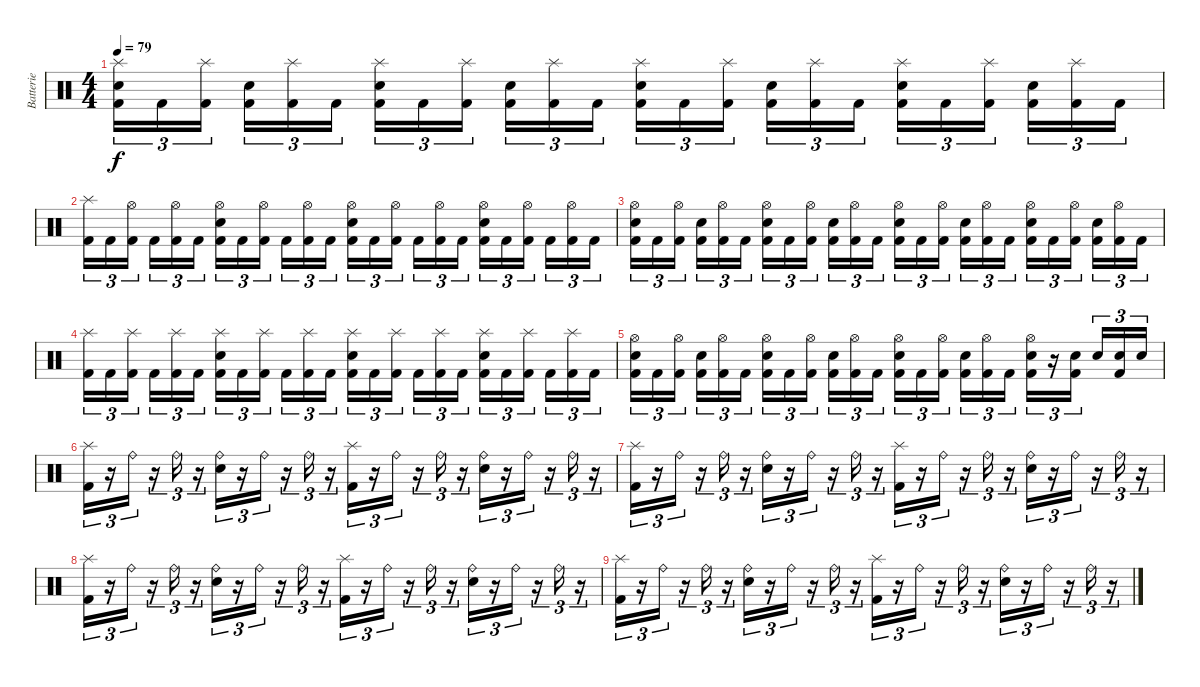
\track ("Batterie" "Batterie") {instrument percussion}
\staff {score}
\articulation defaults
\ts (4 4)
\tempo 79
\clef neutral
\ks c
("Splash (hit)" "Snare (hit) 2" "Kick (hit) 2").16{tu (3 2) dy f} "Kick (hit) 2".16{tu (3 2)} ("Splash (hit)" "Kick (hit) 2").16{tu (3 2)} ("Snare (hit) 2" "Kick (hit) 2").16{tu (3 2)} ("Splash (hit)" "Kick (hit) 2").16{tu (3 2)} "Kick (hit) 2".16{tu (3 2)} ("Splash (hit)" "Snare (hit) 2" "Kick (hit) 2").16{tu (3 2)} "Kick (hit) 2".16{tu (3 2)} ("Splash (hit)" "Kick (hit) 2").16{tu (3 2)} ("Snare (hit) 2" "Kick (hit) 2").16{tu (3 2)} ("Splash (hit)" "Kick (hit) 2").16{tu (3 2)} "Kick (hit) 2".16{tu (3 2)} ("Splash (hit)" "Snare (hit) 2" "Kick (hit) 2").16{tu (3 2)} "Kick (hit) 2".16{tu (3 2)} ("Splash (hit)" "Kick (hit) 2").16{tu (3 2)} ("Snare (hit) 2" "Kick (hit) 2").16{tu (3 2)} ("Splash (hit)" "Kick (hit) 2").16{tu (3 2)} "Kick (hit) 2".16{tu (3 2)} ("Splash (hit)" "Snare (hit) 2" "Kick (hit) 2").16{tu (3 2)} "Kick (hit) 2".16{tu (3 2)} ("Splash (hit)" "Kick (hit) 2").16{tu (3 2)} ("Snare (hit) 2" "Kick (hit) 2").16{tu (3 2)} ("Splash (hit)" "Kick (hit) 2").16{tu (3 2)} "Kick (hit) 2".16{tu (3 2)} |
("Splash (hit)" "Kick (hit) 2").16{tu (3 2)} "Kick (hit) 2".16{tu (3 2)} ("Hi-Hat (open)" "Kick (hit) 2").16{tu (3 2)} "Kick (hit) 2".16{tu (3 2)} ("Hi-Hat (open)" "Kick (hit) 2").16{tu (3 2)} "Kick (hit) 2".16{tu (3 2)} ("Hi-Hat (open)" "Snare (hit) 2" "Kick (hit) 2").16{tu (3 2)} "Kick (hit) 2".16{tu (3 2)} ("Hi-Hat (open)" "Kick (hit) 2").16{tu (3 2)} "Kick (hit) 2".16{tu (3 2)} ("Hi-Hat (open)" "Kick (hit) 2").16{tu (3 2)} "Kick (hit) 2".16{tu (3 2)} ("Hi-Hat (open)" "Snare (hit) 2" "Kick (hit) 2").16{tu (3 2)} "Kick (hit) 2".16{tu (3 2)} ("Hi-Hat (open)" "Kick (hit) 2").16{tu (3 2)} "Kick (hit) 2".16{tu (3 2)} ("Hi-Hat (open)" "Kick (hit) 2").16{tu (3 2)} "Kick (hit) 2".16{tu (3 2)} ("Hi-Hat (open)" "Snare (hit) 2" "Kick (hit) 2").16{tu (3 2)} "Kick (hit) 2".16{tu (3 2)} ("Hi-Hat (open)" "Kick (hit) 2").16{tu (3 2)} "Kick (hit) 2".16{tu (3 2)} ("Hi-Hat (open)" "Kick (hit) 2").16{tu (3 2)} "Kick (hit) 2".16{tu (3 2)} |
("Hi-Hat (open)" "Snare (hit) 2" "Kick (hit) 2").16{tu (3 2)} "Kick (hit) 2".16{tu (3 2)} ("Hi-Hat (open)" "Kick (hit) 2").16{tu (3 2)} ("Snare (hit) 2" "Kick (hit) 2").16{tu (3 2)} ("Hi-Hat (open)" "Kick (hit) 2").16{tu (3 2)} "Kick (hit) 2".16{tu (3 2)} ("Hi-Hat (open)" "Snare (hit) 2" "Kick (hit) 2").16{tu (3 2)} "Kick (hit) 2".16{tu (3 2)} ("Hi-Hat (open)" "Kick (hit) 2").16{tu (3 2)} ("Snare (hit) 2" "Kick (hit) 2").16{tu (3 2)} ("Hi-Hat (open)" "Kick (hit) 2").16{tu (3 2)} "Kick (hit) 2".16{tu (3 2)} ("Hi-Hat (open)" "Snare (hit) 2" "Kick (hit) 2").16{tu (3 2)} "Kick (hit) 2".16{tu (3 2)} ("Hi-Hat (open)" "Kick (hit) 2").16{tu (3 2)} ("Snare (hit) 2" "Kick (hit) 2").16{tu (3 2)} ("Hi-Hat (open)" "Kick (hit) 2").16{tu (3 2)} "Kick (hit) 2".16{tu (3 2)} ("Hi-Hat (open)" "Snare (hit) 2" "Kick (hit) 2").16{tu (3 2)} "Kick (hit) 2".16{tu (3 2)} ("Hi-Hat (open)" "Kick (hit) 2").16{tu (3 2)} ("Snare (hit) 2" "Kick (hit) 2").16{tu (3 2)} ("Hi-Hat (open)" "Kick (hit) 2").16{tu (3 2)} "Kick (hit) 2".16{tu (3 2)} |
("Splash (hit)" "Kick (hit) 2").16{tu (3 2)} "Kick (hit) 2".16{tu (3 2)} ("Splash (hit)" "Kick (hit) 2").16{tu (3 2)} "Kick (hit) 2".16{tu (3 2)} ("Splash (hit)" "Kick (hit) 2").16{tu (3 2)} "Kick (hit) 2".16{tu (3 2)} ("Splash (hit)" "Snare (hit) 2" "Kick (hit) 2").16{tu (3 2)} "Kick (hit) 2".16{tu (3 2)} ("Splash (hit)" "Kick (hit) 2").16{tu (3 2)} "Kick (hit) 2".16{tu (3 2)} ("Splash (hit)" "Kick (hit) 2").16{tu (3 2)} "Kick (hit) 2".16{tu (3 2)} ("Splash (hit)" "Snare (hit) 2" "Kick (hit) 2").16{tu (3 2)} "Kick (hit) 2".16{tu (3 2)} ("Splash (hit)" "Kick (hit) 2").16{tu (3 2)} "Kick (hit) 2".16{tu (3 2)} ("Splash (hit)" "Kick (hit) 2").16{tu (3 2)} "Kick (hit) 2".16{tu (3 2)} ("Splash (hit)" "Snare (hit) 2" "Kick (hit) 2").16{tu (3 2)} "Kick (hit) 2".16{tu (3 2)} ("Splash (hit)" "Kick (hit) 2").16{tu (3 2)} "Kick (hit) 2".16{tu (3 2)} ("Splash (hit)" "Kick (hit) 2").16{tu (3 2)} "Kick (hit) 2".16{tu (3 2)} |
("Hi-Hat (open)" "Snare (hit) 2" "Kick (hit) 2").16{tu (3 2)} "Kick (hit) 2".16{tu (3 2)} ("Hi-Hat (open)" "Kick (hit) 2").16{tu (3 2)} ("Snare (hit) 2" "Kick (hit) 2").16{tu (3 2)} ("Hi-Hat (open)" "Kick (hit) 2").16{tu (3 2)} "Kick (hit) 2".16{tu (3 2)} ("Hi-Hat (open)" "Snare (hit) 2" "Kick (hit) 2").16{tu (3 2)} "Kick (hit) 2".16{tu (3 2)} ("Hi-Hat (open)" "Kick (hit) 2").16{tu (3 2)} ("Snare (hit) 2" "Kick (hit) 2").16{tu (3 2)} ("Hi-Hat (open)" "Kick (hit) 2").16{tu (3 2)} "Kick (hit) 2".16{tu (3 2)} ("Hi-Hat (open)" "Snare (hit) 2" "Kick (hit) 2").16{tu (3 2)} "Kick (hit) 2".16{tu (3 2)} ("Hi-Hat (open)" "Kick (hit) 2").16{tu (3 2)} ("Snare (hit) 2" "Kick (hit) 2").16{tu (3 2)} ("Hi-Hat (open)" "Kick (hit) 2").16{tu (3 2)} "Kick (hit) 2".16{tu (3 2)} ("Hi-Hat (open)" "Snare (hit) 2" "Kick (hit) 2").16{tu (3 2)} r.16{tu (3 2)} ("Snare (hit) 2" "Kick (hit) 2").16{tu (3 2)} "Snare (hit) 2".16{tu (3 2)} ("Snare (hit) 2" "Kick (hit) 2").16{tu (3 2)} "Snare (hit) 2".16{tu (3 2)} |
("Splash (hit)" "Kick (hit) 2").16{tu (3 2)} r.16{tu (3 2)} "Ride (bell)".16{tu (3 2)} r.16{tu (3 2)} "Ride (bell)".16{tu (3 2)} r.16{tu (3 2)} ("Ride (bell)" "Snare (hit) 2").16{tu (3 2)} r.16{tu (3 2)} "Ride (bell)".16{tu (3 2)} r.16{tu (3 2)} "Ride (bell)".16{tu (3 2)} r.16{tu (3 2)} ("Splash (hit)" "Kick (hit) 2").16{tu (3 2)} r.16{tu (3 2)} "Ride (bell)".16{tu (3 2)} r.16{tu (3 2)} "Ride (bell)".16{tu (3 2)} r.16{tu (3 2)} ("Ride (bell)" "Snare (hit) 2").16{tu (3 2)} r.16{tu (3 2)} "Ride (bell)".16{tu (3 2)} r.16{tu (3 2)} "Ride (bell)".16{tu (3 2)} r.16{tu (3 2)} |
("Splash (hit)" "Kick (hit) 2").16{tu (3 2)} r.16{tu (3 2)} "Ride (bell)".16{tu (3 2)} r.16{tu (3 2)} "Ride (bell)".16{tu (3 2)} r.16{tu (3 2)} ("Ride (bell)" "Snare (hit) 2").16{tu (3 2)} r.16{tu (3 2)} "Ride (bell)".16{tu (3 2)} r.16{tu (3 2)} "Ride (bell)".16{tu (3 2)} r.16{tu (3 2)} ("Splash (hit)" "Kick (hit) 2").16{tu (3 2)} r.16{tu (3 2)} "Ride (bell)".16{tu (3 2)} r.16{tu (3 2)} "Ride (bell)".16{tu (3 2)} r.16{tu (3 2)} ("Ride (bell)" "Snare (hit) 2").16{tu (3 2)} r.16{tu (3 2)} "Ride (bell)".16{tu (3 2)} r.16{tu (3 2)} "Ride (bell)".16{tu (3 2)} r.16{tu (3 2)} |
("Splash (hit)" "Kick (hit) 2").16{tu (3 2)} r.16{tu (3 2)} "Ride (bell)".16{tu (3 2)} r.16{tu (3 2)} "Ride (bell)".16{tu (3 2)} r.16{tu (3 2)} ("Ride (bell)" "Snare (hit) 2").16{tu (3 2)} r.16{tu (3 2)} "Ride (bell)".16{tu (3 2)} r.16{tu (3 2)} "Ride (bell)".16{tu (3 2)} r.16{tu (3 2)} ("Splash (hit)" "Kick (hit) 2").16{tu (3 2)} r.16{tu (3 2)} "Ride (bell)".16{tu (3 2)} r.16{tu (3 2)} "Ride (bell)".16{tu (3 2)} r.16{tu (3 2)} ("Ride (bell)" "Snare (hit) 2").16{tu (3 2)} r.16{tu (3 2)} "Ride (bell)".16{tu (3 2)} r.16{tu (3 2)} "Ride (bell)".16{tu (3 2)} r.16{tu (3 2)} |
("Splash (hit)" "Kick (hit) 2").16{tu (3 2)} r.16{tu (3 2)} "Ride (bell)".16{tu (3 2)} r.16{tu (3 2)} "Ride (bell)".16{tu (3 2)} r.16{tu (3 2)} ("Ride (bell)" "Snare (hit) 2").16{tu (3 2)} r.16{tu (3 2)} "Ride (bell)".16{tu (3 2)} r.16{tu (3 2)} "Ride (bell)".16{tu (3 2)} r.16{tu (3 2)} ("Splash (hit)" "Kick (hit) 2").16{tu (3 2)} r.16{tu (3 2)} "Ride (bell)".16{tu (3 2)} r.16{tu (3 2)} "Ride (bell)".16{tu (3 2)} r.16{tu (3 2)} ("Ride (bell)" "Snare (hit) 2").16{tu (3 2)} r.16{tu (3 2)} "Ride (bell)".16{tu (3 2)} r.16{tu (3 2)} "Ride (bell)".16{tu (3 2)} r.16{tu (3 2)}
